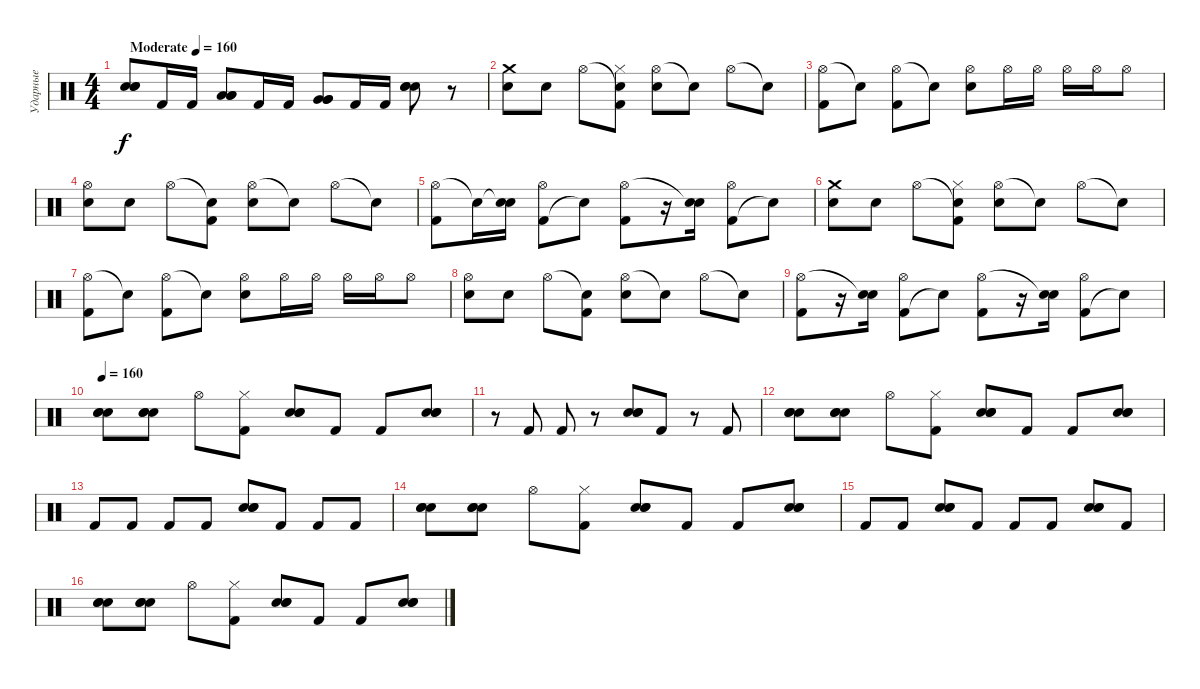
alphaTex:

\track ("Ударные" "Ударные") {instrument percussion}
\staff {score}
\articulation defaults
\ts (4 4)
\tempo (160 "Moderate")
\clef neutral
\ks c
("Electric Snare (hit)" "Electric Snare (hit)" "Electric Snare (hit)").8{bu 120 dy f} "Kick (hit) 2".16 "Kick (hit) 2".16 ("Low Tom (hit)" "Low Tom (hit)" "Low Tom (hit)").8{bu 120} "Kick (hit) 2".16 "Kick (hit) 2".16 ("Very Low Tom (hit)" "Very Low Tom (hit)" "Very Low Tom (hit)").8{bu 120} "Kick (hit) 2".16 "Kick (hit) 2".16 ("Electric Snare (hit)" "Electric Snare (hit)" "Electric Snare (hit)").8{bu 120} r.8 |
("Crash medium (hit)" "Electric Snare (hit)").8 "Electric Snare (hit)".8 "Hi-Hat (open)".8 ("Snare (hit)"{t} "Hi-Hat (closed)" "Kick (hit) 2").8 ("Hi-Hat (open)" "Electric Snare (hit)").8 "Snare (hit)"{t}.8 "Hi-Hat (open)".8 "Snare (hit)"{t}.8 |
("Hi-Hat (open)" "Kick (hit) 2").8 "Snare (hit)"{t}.8 ("Hi-Hat (open)" "Kick (hit) 2").8 "Snare (hit)"{t}.8 ("Hi-Hat (open)" "Electric Snare (hit)").8 "Hi-Hat (open)".16 "Hi-Hat (open)".16 "Hi-Hat (open)".16 "Hi-Hat (open)".16 "Hi-Hat (open)".8 |
("Hi-Hat (open)" "Electric Snare (hit)").8 "Electric Snare (hit)".8 "Hi-Hat (open)".8 ("Snare (hit)"{t} "Kick (hit) 2").8 ("Hi-Hat (open)" "Electric Snare (hit)").8 "Snare (hit)"{t}.8 "Hi-Hat (open)".8 "Snare (hit)"{t}.8 |
("Hi-Hat (open)" "Kick (hit) 2").8 "Snare (hit)"{t}.16 ("Snare (hit)"{t} "Electric Snare (hit)").16 ("Kick (hit) 2" "Hi-Hat (open)").8 "Snare (hit)"{t}.8 ("Hi-Hat (open)" "Kick (hit) 2").8 r.16 ("Snare (hit)"{t} "Electric Snare (hit)").16 ("Kick (hit) 2" "Hi-Hat (open)").8 "Snare (hit)"{t}.8 |
("Crash medium (hit)" "Electric Snare (hit)").8 "Electric Snare (hit)".8 "Hi-Hat (open)".8 ("Snare (hit)"{t} "Hi-Hat (closed)" "Kick (hit) 2").8 ("Hi-Hat (open)" "Electric Snare (hit)").8 "Snare (hit)"{t}.8 "Hi-Hat (open)".8 "Snare (hit)"{t}.8 |
("Hi-Hat (open)" "Kick (hit) 2").8 "Snare (hit)"{t}.8 ("Hi-Hat (open)" "Kick (hit) 2").8 "Snare (hit)"{t}.8 ("Hi-Hat (open)" "Electric Snare (hit)").8 "Hi-Hat (open)".16 "Hi-Hat (open)".16 "Hi-Hat (open)".16 "Hi-Hat (open)".16 "Hi-Hat (open)".8 |
("Hi-Hat (open)" "Electric Snare (hit)").8 "Electric Snare (hit)".8 "Hi-Hat (open)".8 ("Snare (hit)"{t} "Kick (hit) 2").8 ("Hi-Hat (open)" "Electric Snare (hit)").8 "Snare (hit)"{t}.8 "Hi-Hat (open)".8 "Snare (hit)"{t}.8 |
("Hi-Hat (open)" "Kick (hit) 2").8 r.16 ("Snare (hit)"{t} "Electric Snare (hit)").16 ("Kick (hit) 2" "Hi-Hat (open)").8 "Snare (hit)"{t}.8 ("Hi-Hat (open)" "Kick (hit) 2").8 r.16 ("Snare (hit)"{t} "Electric Snare (hit)").16 ("Kick (hit) 2" "Hi-Hat (open)").8 "Snare (hit)"{t}.8 |
\tempo 160
("Electric Snare (hit)" "Electric Snare (hit)" "Electric Snare (hit)").8{bu 120} ("Electric Snare (hit)" "Electric Snare (hit)" "Electric Snare (hit)").8{bu 120} "Hi-Hat (open)".8 ("Hi-Hat (closed)" "Kick (hit) 2").8 ("Electric Snare (hit)" "Electric Snare (hit)" "Electric Snare (hit)").8{bu 120} "Kick (hit) 2".8 "Kick (hit) 2".8 ("Electric Snare (hit)" "Electric Snare (hit)" "Electric Snare (hit)").8{bu 120} |
r.8 "Kick (hit) 2".8 "Kick (hit) 2".8 r.8 ("Electric Snare (hit)" "Electric Snare (hit)" "Electric Snare (hit)").8{bu 120} "Kick (hit) 2".8 r.8 "Kick (hit) 2".8 |
("Electric Snare (hit)" "Electric Snare (hit)" "Electric Snare (hit)").8{bu 120} ("Electric Snare (hit)" "Electric Snare (hit)" "Electric Snare (hit)").8{bu 120} "Hi-Hat (open)".8 ("Hi-Hat (closed)" "Kick (hit) 2").8 ("Electric Snare (hit)" "Electric Snare (hit)" "Electric Snare (hit)").8{bu 120} "Kick (hit) 2".8 "Kick (hit) 2".8 ("Electric Snare (hit)" "Electric Snare (hit)" "Electric Snare (hit)").8{bu 120} |
"Kick (hit) 2".8 "Kick (hit) 2".8 "Kick (hit) 2".8 "Kick (hit) 2".8 ("Electric Snare (hit)" "Electric Snare (hit)" "Electric Snare (hit)").8{bu 120} "Kick (hit) 2".8 "Kick (hit) 2".8 "Kick (hit) 2".8 |
("Electric Snare (hit)" "Electric Snare (hit)" "Electric Snare (hit)").8{bu 120} ("Electric Snare (hit)" "Electric Snare (hit)" "Electric Snare (hit)").8{bu 120} "Hi-Hat (open)".8 ("Hi-Hat (closed)" "Kick (hit) 2").8 ("Electric Snare (hit)" "Electric Snare (hit)" "Electric Snare (hit)").8{bu 120} "Kick (hit) 2".8 "Kick (hit) 2".8 ("Electric Snare (hit)" "Electric Snare (hit)" "Electric Snare (hit)").8{bu 120} |
"Kick (hit) 2".8 "Kick (hit) 2".8 ("Electric Snare (hit)" "Electric Snare (hit)" "Electric Snare (hit)").8{bu 120} "Kick (hit) 2".8 "Kick (hit) 2".8 "Kick (hit) 2".8 ("Electric Snare (hit)" "Electric Snare (hit)" "Electric Snare (hit)").8{bu 120} "Kick (hit) 2".8 |
("Electric Snare (hit)" "Electric Snare (hit)" "Electric Snare (hit)").8{bu 120} ("Electric Snare (hit)" "Electric Snare (hit)" "Electric Snare (hit)").8{bu 120} "Hi-Hat (open)".8 ("Hi-Hat (closed)" "Kick (hit) 2").8 ("Electric Snare (hit)" "Electric Snare (hit)" "Electric Snare (hit)").8{bu 120} "Kick (hit) 2".8 "Kick (hit) 2".8 ("Electric Snare (hit)" "Electric Snare (hit)" "Electric Snare (hit)").8{bu 120}
